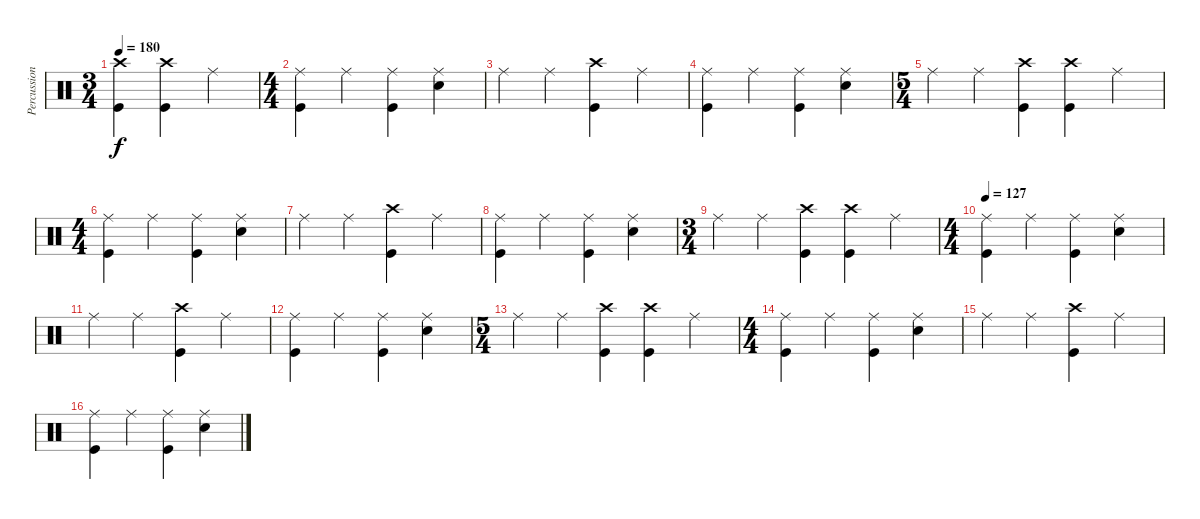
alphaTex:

\track ("Percussion" "Percussion") {instrument percussion}
\staff {score}
\articulation defaults
\ts (3 4)
\tempo 180
\tempo 127
\tempo 180
\clef neutral
\ks c
("Crash high (hit)" "Kick (hit)").4{dy f} ("Crash high (hit)" "Kick (hit)").4 "Ride (middle)".4 |
\ts (4 4)
("Ride (middle)" "Kick (hit)").4 "Ride (middle)".4 ("Ride (middle)" "Kick (hit)").4 ("Ride (middle)" "Snare (hit) 2").4 |
"Ride (middle)".4 "Ride (middle)".4 ("Crash high (hit)" "Kick (hit)").4 "Ride (middle)".4 |
("Ride (middle)" "Kick (hit)").4 "Ride (middle)".4 ("Ride (middle)" "Kick (hit)").4 ("Ride (middle)" "Snare (hit) 2").4 |
\ts (5 4)
"Ride (middle)".4 "Ride (middle)".4 ("Crash high (hit)" "Kick (hit)").4 ("Crash high (hit)" "Kick (hit)").4 "Ride (middle)".4 |
\ts (4 4)
("Ride (middle)" "Kick (hit)").4 "Ride (middle)".4 ("Ride (middle)" "Kick (hit)").4 ("Ride (middle)" "Snare (hit) 2").4 |
"Ride (middle)".4 "Ride (middle)".4 ("Crash high (hit)" "Kick (hit)").4 "Ride (middle)".4 |
("Ride (middle)" "Kick (hit)").4 "Ride (middle)".4 ("Ride (middle)" "Kick (hit)").4 ("Ride (middle)" "Snare (hit) 2").4 |
\ts (3 4)
"Ride (middle)".4 "Ride (middle)".4 ("Crash high (hit)" "Kick (hit)").4 ("Crash high (hit)" "Kick (hit)").4 "Ride (middle)".4 |
\ts (4 4)
\tempo 127
("Ride (middle)" "Kick (hit)").4 "Ride (middle)".4 ("Ride (middle)" "Kick (hit)").4 ("Ride (middle)" "Snare (hit) 2").4 |
"Ride (middle)".4 "Ride (middle)".4 ("Crash high (hit)" "Kick (hit)").4 "Ride (middle)".4 |
("Ride (middle)" "Kick (hit)").4 "Ride (middle)".4 ("Ride (middle)" "Kick (hit)").4 ("Ride (middle)" "Snare (hit) 2").4 |
\ts (5 4)
"Ride (middle)".4 "Ride (middle)".4 ("Crash high (hit)" "Kick (hit)").4 ("Crash high (hit)" "Kick (hit)").4 "Ride (middle)".4 |
\ts (4 4)
("Ride (middle)" "Kick (hit)").4 "Ride (middle)".4 ("Ride (middle)" "Kick (hit)").4 ("Ride (middle)" "Snare (hit) 2").4 |
"Ride (middle)".4 "Ride (middle)".4 ("Crash high (hit)" "Kick (hit)").4 "Ride (middle)".4 |
("Ride (middle)" "Kick (hit)").4 "Ride (middle)".4 ("Ride (middle)" "Kick (hit)").4 ("Ride (middle)" "Snare (hit) 2").4
